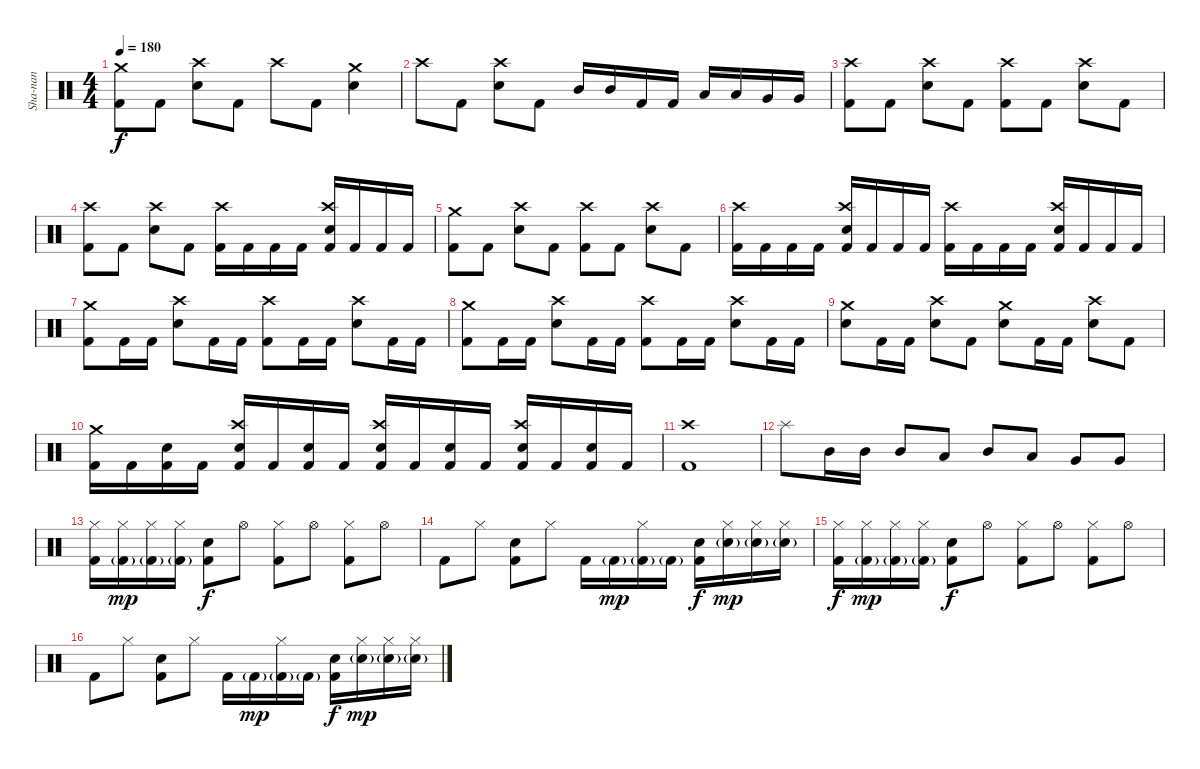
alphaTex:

\track ("Sha-nan" "Sha-nan") {instrument percussion}
\staff {score}
\articulation defaults
\ts (4 4)
\tempo 180
\clef neutral
\ks c
("Crash medium (hit)" "Kick (hit) 2").8{dy f} "Kick (hit) 2".8 ("Crash high (hit)" "Snare (hit) 2").8 "Kick (hit) 2".8 "Crash high (hit)".8 "Kick (hit) 2".8 ("Crash medium (hit)" "Snare (hit) 2").4 |
"Crash high (hit)".8 "Kick (hit) 2".8 ("Crash high (hit)" "Snare (hit) 2").8 "Kick (hit) 2".8 "Mid Tom (hit)".16 "Mid Tom (hit)".16 "Kick (hit) 2".16 "Kick (hit) 2".16 "Low Tom (hit)".16 "Low Tom (hit)".16 "Very Low Tom (hit)".16 "Very Low Tom (hit)".16 |
("Crash high (hit)" "Kick (hit) 2").8 "Kick (hit) 2".8 ("Crash high (hit)" "Snare (hit) 2").8 "Kick (hit) 2".8 ("Crash high (hit)" "Kick (hit) 2").8 "Kick (hit) 2".8 ("Crash high (hit)" "Snare (hit) 2").8 "Kick (hit) 2".8 |
("Crash high (hit)" "Kick (hit) 2").8 "Kick (hit) 2".8 ("Crash high (hit)" "Snare (hit) 2").8 "Kick (hit) 2".8 ("Crash high (hit)" "Kick (hit) 2").16 "Kick (hit) 2".16 "Kick (hit) 2".16 "Kick (hit) 2".16 ("Crash high (hit)" "Snare (hit) 2" "Kick (hit) 2").16 "Kick (hit) 2".16 "Kick (hit) 2".16 "Kick (hit) 2".16 |
("Crash medium (hit)" "Kick (hit) 2").8 "Kick (hit) 2".8 ("Crash high (hit)" "Snare (hit) 2").8 "Kick (hit) 2".8 ("Crash high (hit)" "Kick (hit) 2").8 "Kick (hit) 2".8 ("Crash high (hit)" "Snare (hit) 2").8 "Kick (hit) 2".8 |
("Crash high (hit)" "Kick (hit) 2").16 "Kick (hit) 2".16 "Kick (hit) 2".16 "Kick (hit) 2".16 ("Crash high (hit)" "Snare (hit) 2" "Kick (hit) 2").16 "Kick (hit) 2".16 "Kick (hit) 2".16 "Kick (hit) 2".16 ("Crash high (hit)" "Kick (hit) 2").16 "Kick (hit) 2".16 "Kick (hit) 2".16 "Kick (hit) 2".16 ("Crash high (hit)" "Snare (hit) 2" "Kick (hit) 2").16 "Kick (hit) 2".16 "Kick (hit) 2".16 "Kick (hit) 2".16 |
("Crash medium (hit)" "Kick (hit) 2").8 "Kick (hit) 2".16 "Kick (hit) 2".16 ("Crash high (hit)" "Snare (hit) 2").8 "Kick (hit) 2".16 "Kick (hit) 2".16 ("Crash high (hit)" "Kick (hit) 2").8 "Kick (hit) 2".16 "Kick (hit) 2".16 ("Crash high (hit)" "Snare (hit) 2").8 "Kick (hit) 2".16 "Kick (hit) 2".16 |
("Crash medium (hit)" "Kick (hit) 2").8 "Kick (hit) 2".16 "Kick (hit) 2".16 ("Crash high (hit)" "Snare (hit) 2").8 "Kick (hit) 2".16 "Kick (hit) 2".16 ("Crash high (hit)" "Kick (hit) 2").8 "Kick (hit) 2".16 "Kick (hit) 2".16 ("Crash high (hit)" "Snare (hit) 2").8 "Kick (hit) 2".16 "Kick (hit) 2".16 |
("Crash medium (hit)" "Snare (hit) 2").8 "Kick (hit) 2".16 "Kick (hit) 2".16 ("Crash high (hit)" "Snare (hit) 2").8 "Kick (hit) 2".8 ("Crash medium (hit)" "Snare (hit) 2").8 "Kick (hit) 2".16 "Kick (hit) 2".16 ("Crash high (hit)" "Snare (hit) 2").8 "Kick (hit) 2".8 |
("Crash medium (hit)" "Kick (hit) 2").16 "Kick (hit) 2".16 ("Snare (hit) 2" "Kick (hit) 2").16 "Kick (hit) 2".16 ("Crash high (hit)" "Snare (hit) 2" "Kick (hit) 2").16 "Kick (hit) 2".16 ("Snare (hit) 2" "Kick (hit) 2").16 "Kick (hit) 2".16 ("Crash high (hit)" "Snare (hit) 2" "Kick (hit) 2").16 "Kick (hit) 2".16 ("Snare (hit) 2" "Kick (hit) 2").16 "Kick (hit) 2".16 ("Crash high (hit)" "Snare (hit) 2" "Kick (hit) 2").16 "Kick (hit) 2".16 ("Snare (hit) 2" "Kick (hit) 2").16 "Kick (hit) 2".16 |
("Crash high (hit)" "Kick (hit) 2").1 |
"Splash (hit)".8 "Mid Tom (hit)".16 "Mid Tom (hit)".16 "Mid Tom (hit)".8 "Low Tom (hit)".8 "Mid Tom (hit)".8 "Low Tom (hit)".8 "Very Low Tom (hit)".8 "Very Low Tom (hit)".8 |
("Hi-Hat (closed)" "Kick (hit) 2").16 ("Hi-Hat (closed)" "Kick (hit) 2"{g}).16{dy mp} ("Hi-Hat (closed)" "Kick (hit) 2"{g}).16 ("Hi-Hat (closed)" "Kick (hit) 2"{g}).16 ("Snare (hit) 2" "Kick (hit) 2").8{dy f} "Hi-Hat (open)".8 ("Hi-Hat (closed)" "Kick (hit) 2").8 "Hi-Hat (open)".8 ("Hi-Hat (closed)" "Kick (hit) 2").8 "Hi-Hat (open)".8 |
"Kick (hit) 2".8 "Hi-Hat (closed)".8 ("Snare (hit) 2" "Kick (hit) 2").8 "Hi-Hat (closed)".8 "Kick (hit) 2".16 "Kick (hit) 2"{g}.16{dy mp} ("Hi-Hat (closed)" "Kick (hit) 2"{g}).16 "Kick (hit) 2"{g}.16 ("Snare (hit) 2" "Kick (hit) 2").16{dy f} ("Hi-Hat (closed)" "Snare (hit) 2"{g}).16{dy mp} ("Hi-Hat (closed)" "Snare (hit) 2"{g}).16 ("Hi-Hat (closed)" "Snare (hit) 2"{g}).16 |
("Hi-Hat (closed)" "Kick (hit) 2").16{dy f} ("Hi-Hat (closed)" "Kick (hit) 2"{g}).16{dy mp} ("Hi-Hat (closed)" "Kick (hit) 2"{g}).16 ("Hi-Hat (closed)" "Kick (hit) 2"{g}).16 ("Snare (hit) 2" "Kick (hit) 2").8{dy f} "Hi-Hat (open)".8 ("Hi-Hat (closed)" "Kick (hit) 2").8 "Hi-Hat (open)".8 ("Hi-Hat (closed)" "Kick (hit) 2").8 "Hi-Hat (open)".8 |
"Kick (hit) 2".8 "Hi-Hat (closed)".8 ("Snare (hit) 2" "Kick (hit) 2").8 "Hi-Hat (closed)".8 "Kick (hit) 2".16 "Kick (hit) 2"{g}.16{dy mp} ("Hi-Hat (closed)" "Kick (hit) 2"{g}).16 "Kick (hit) 2"{g}.16 ("Snare (hit) 2" "Kick (hit) 2").16{dy f} ("Hi-Hat (closed)" "Snare (hit) 2"{g}).16{dy mp} ("Hi-Hat (closed)" "Snare (hit) 2"{g}).16 ("Hi-Hat (closed)" "Snare (hit) 2"{g}).16
